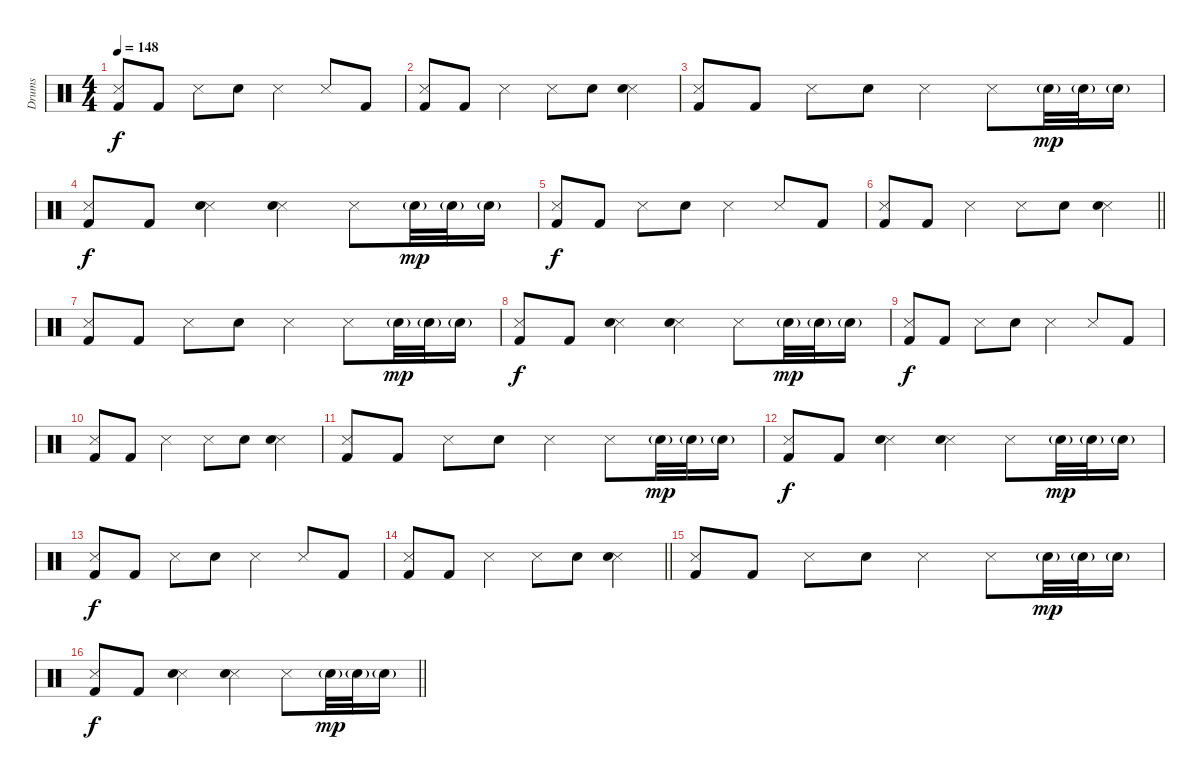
\track ("Drums" "Drums") {instrument percussion}
\staff {score}
\articulation defaults
\ts (4 4)
\tempo 148
\clef neutral
\ks c
("Snare (side stick) 3" "Kick (hit) 2").8{dy f} "Kick (hit) 2".8 "Snare (side stick) 3".8 "Electric Snare (hit)".8 "Snare (side stick) 3".4 "Snare (side stick) 3".8 "Kick (hit) 2".8 |
("Snare (side stick) 3" "Kick (hit) 2").8 "Kick (hit) 2".8 "Snare (side stick) 3".4 "Snare (side stick) 3".8 "Electric Snare (hit)".8 ("Snare (side stick) 3" "Electric Snare (hit)").4 |
("Snare (side stick) 3" "Kick (hit) 2").8 "Kick (hit) 2".8 "Snare (side stick) 3".8 "Electric Snare (hit)".8 "Snare (side stick) 3".4 "Snare (side stick) 3".8 "Electric Snare (hit)"{g}.32{dy mp} "Electric Snare (hit)"{g}.32 "Electric Snare (hit)"{g}.16 |
("Snare (side stick) 3" "Kick (hit) 2").8{dy f} "Kick (hit) 2".8 ("Snare (side stick) 3" "Electric Snare (hit)").4 ("Snare (side stick) 3" "Electric Snare (hit)").4 "Snare (side stick) 3".8 "Electric Snare (hit)"{g}.32{dy mp} "Electric Snare (hit)"{g}.32 "Electric Snare (hit)"{g}.16 |
("Snare (side stick) 3" "Kick (hit) 2").8{dy f} "Kick (hit) 2".8 "Snare (side stick) 3".8 "Electric Snare (hit)".8 "Snare (side stick) 3".4 "Snare (side stick) 3".8 "Kick (hit) 2".8 |
\barLineRight lightlight
("Snare (side stick) 3" "Kick (hit) 2").8 "Kick (hit) 2".8 "Snare (side stick) 3".4 "Snare (side stick) 3".8 "Electric Snare (hit)".8 ("Snare (side stick) 3" "Electric Snare (hit)").4 |
("Snare (side stick) 3" "Kick (hit) 2").8 "Kick (hit) 2".8 "Snare (side stick) 3".8 "Electric Snare (hit)".8 "Snare (side stick) 3".4 "Snare (side stick) 3".8 "Electric Snare (hit)"{g}.32{dy mp} "Electric Snare (hit)"{g}.32 "Electric Snare (hit)"{g}.16 |
("Snare (side stick) 3" "Kick (hit) 2").8{dy f} "Kick (hit) 2".8 ("Snare (side stick) 3" "Electric Snare (hit)").4 ("Snare (side stick) 3" "Electric Snare (hit)").4 "Snare (side stick) 3".8 "Electric Snare (hit)"{g}.32{dy mp} "Electric Snare (hit)"{g}.32 "Electric Snare (hit)"{g}.16 |
("Snare (side stick) 3" "Kick (hit) 2").8{dy f} "Kick (hit) 2".8 "Snare (side stick) 3".8 "Electric Snare (hit)".8 "Snare (side stick) 3".4 "Snare (side stick) 3".8 "Kick (hit) 2".8 |
("Snare (side stick) 3" "Kick (hit) 2").8 "Kick (hit) 2".8 "Snare (side stick) 3".4 "Snare (side stick) 3".8 "Electric Snare (hit)".8 ("Snare (side stick) 3" "Electric Snare (hit)").4 |
("Snare (side stick) 3" "Kick (hit) 2").8 "Kick (hit) 2".8 "Snare (side stick) 3".8 "Electric Snare (hit)".8 "Snare (side stick) 3".4 "Snare (side stick) 3".8 "Electric Snare (hit)"{g}.32{dy mp} "Electric Snare (hit)"{g}.32 "Electric Snare (hit)"{g}.16 |
("Snare (side stick) 3" "Kick (hit) 2").8{dy f} "Kick (hit) 2".8 ("Snare (side stick) 3" "Electric Snare (hit)").4 ("Snare (side stick) 3" "Electric Snare (hit)").4 "Snare (side stick) 3".8 "Electric Snare (hit)"{g}.32{dy mp} "Electric Snare (hit)"{g}.32 "Electric Snare (hit)"{g}.16 |
("Snare (side stick) 3" "Kick (hit) 2").8{dy f} "Kick (hit) 2".8 "Snare (side stick) 3".8 "Electric Snare (hit)".8 "Snare (side stick) 3".4 "Snare (side stick) 3".8 "Kick (hit) 2".8 |
\barLineRight lightlight
("Snare (side stick) 3" "Kick (hit) 2").8 "Kick (hit) 2".8 "Snare (side stick) 3".4 "Snare (side stick) 3".8 "Electric Snare (hit)".8 ("Snare (side stick) 3" "Electric Snare (hit)").4 |
("Snare (side stick) 3" "Kick (hit) 2").8 "Kick (hit) 2".8 "Snare (side stick) 3".8 "Electric Snare (hit)".8 "Snare (side stick) 3".4 "Snare (side stick) 3".8 "Electric Snare (hit)"{g}.32{dy mp} "Electric Snare (hit)"{g}.32 "Electric Snare (hit)"{g}.16 |
\barLineRight lightlight
("Snare (side stick) 3" "Kick (hit) 2").8{dy f} "Kick (hit) 2".8 ("Snare (side stick) 3" "Electric Snare (hit)").4 ("Snare (side stick) 3" "Electric Snare (hit)").4 "Snare (side stick) 3".8 "Electric Snare (hit)"{g}.32{dy mp} "Electric Snare (hit)"{g}.32 "Electric Snare (hit)"{g}.16
